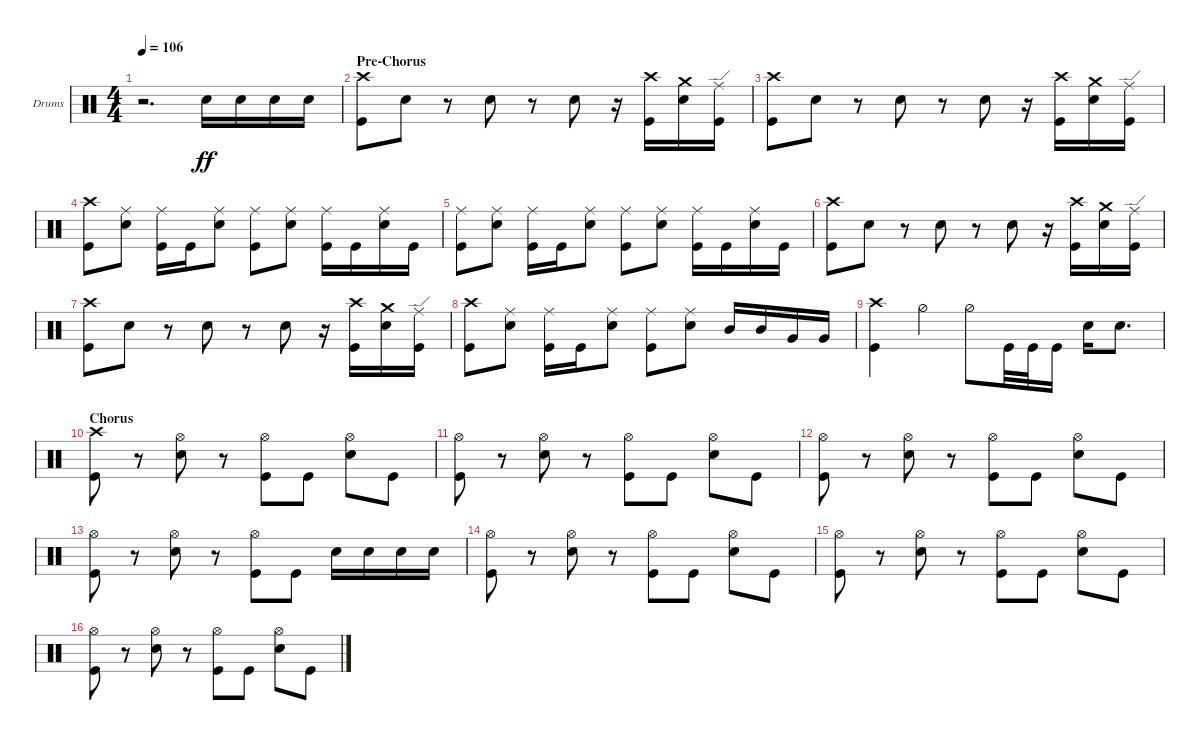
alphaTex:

\defaultSystemsLayout 4
\bracketExtendMode groupsimilarinstruments
\firstSystemTrackNameOrientation horizontal
\otherSystemsTrackNameOrientation horizontal
\track ("Drumkit" "Drums") {instrument percussion}
\staff {score}
\articulation defaults
\ts (4 4)
\tempo 106
\clef neutral
\ks c
r.2{d dy ff} "Snare (hit) 2".16 "Snare (hit) 2".16 "Snare (hit) 2".16 "Snare (hit) 2".16 |
\section ("" "Pre-Chorus")
\scale
0.474178 ("Kick (hit)" "Crash high (hit)").8 "Snare (hit) 2".8 r.8 "Snare (hit) 2".8 r.8 "Snare (hit) 2".8 r.16 ("Kick (hit)" "Crash high (hit)").16 ("Crash medium (hit)" "Snare (hit) 2").16 ("Kick (hit)" "Ride (edge)").16 |
\scale
0.262911 ("Kick (hit)" "Crash high (hit)").8 "Snare (hit) 2".8 r.8 "Snare (hit) 2".8 r.8 "Snare (hit) 2".8 r.16 ("Kick (hit)" "Crash high (hit)").16 ("Crash medium (hit)" "Snare (hit) 2").16 ("Kick (hit)" "Ride (edge)").16 |
\scale
0.262911 ("Kick (hit)" "Crash high (hit)").8 ("Snare (hit) 2" "Ride (middle)").8 ("Kick (hit)" "Ride (middle)").16 "Kick (hit)".16 ("Snare (hit) 2" "Ride (middle)").8 ("Kick (hit)" "Ride (middle)").8 ("Snare (hit) 2" "Ride (middle)").8 ("Kick (hit)" "Ride (middle)").16 "Kick (hit)".16 ("Snare (hit) 2" "Ride (middle)").16 "Kick (hit)".16 |
\scale
0.333333 ("Kick (hit)" "Ride (middle)").8 ("Snare (hit) 2" "Ride (middle)").8 ("Kick (hit)" "Ride (middle)").16 "Kick (hit)".16 ("Snare (hit) 2" "Ride (middle)").8 ("Kick (hit)" "Ride (middle)").8 ("Snare (hit) 2" "Ride (middle)").8 ("Kick (hit)" "Ride (middle)").16 "Kick (hit)".16 ("Snare (hit) 2" "Ride (middle)").16 "Kick (hit)".16 |
\scale
0.333333 ("Kick (hit)" "Crash high (hit)").8 "Snare (hit) 2".8 r.8 "Snare (hit) 2".8 r.8 "Snare (hit) 2".8 r.16 ("Kick (hit)" "Crash high (hit)").16 ("Crash medium (hit)" "Snare (hit) 2").16 ("Kick (hit)" "Ride (edge)").16 |
\scale
0.333333 ("Kick (hit)" "Crash high (hit)").8 "Snare (hit) 2".8 r.8 "Snare (hit) 2".8 r.8 "Snare (hit) 2".8 r.16 ("Kick (hit)" "Crash high (hit)").16 ("Crash medium (hit)" "Snare (hit) 2").16 ("Kick (hit)" "Ride (edge)").16 |
\scale
0.333333 ("Kick (hit)" "Crash high (hit)").8 ("Snare (hit) 2" "Ride (middle)").8 ("Kick (hit)" "Ride (middle)").16 "Kick (hit)".16 ("Snare (hit) 2" "Ride (middle)").8 ("Kick (hit)" "Ride (middle)").8 ("Snare (hit) 2" "Ride (middle)").8 "Mid Tom (hit)".16 "Mid Tom (hit)".16 "Very Low Tom (hit)".16 "Very Low Tom (hit)".16 |
\scale
0.333333 ("Kick (hit)" "Crash high (hit)").4 "Hi-Hat (half)".4 "Hi-Hat (half)".8 "Kick (hit)".32 "Kick (hit)".32 "Kick (hit)".16 "Snare (hit) 2".16 "Snare (hit) 2".8{d} |
\section ("" "Chorus")
\scale
0.333333 ("Crash high (hit)" "Kick (hit)").8 r.8 ("Snare (hit) 2" "Hi-Hat (open)").8 r.8 ("Kick (hit)" "Hi-Hat (open)").8 "Kick (hit)".8 ("Snare (hit) 2" "Hi-Hat (open)").8 "Kick (hit)".8 |
\scale
0.333333 ("Kick (hit)" "Hi-Hat (open)").8 r.8 ("Snare (hit) 2" "Hi-Hat (open)").8 r.8 ("Kick (hit)" "Hi-Hat (open)").8 "Kick (hit)".8 ("Snare (hit) 2" "Hi-Hat (open)").8 "Kick (hit)".8 |
\scale
0.333333 ("Kick (hit)" "Hi-Hat (open)").8 r.8 ("Snare (hit) 2" "Hi-Hat (open)").8 r.8 ("Kick (hit)" "Hi-Hat (open)").8 "Kick (hit)".8 ("Snare (hit) 2" "Hi-Hat (open)").8 "Kick (hit)".8 |
\scale
0.333333 ("Kick (hit)" "Hi-Hat (open)").8 r.8 ("Snare (hit) 2" "Hi-Hat (open)").8 r.8 ("Kick (hit)" "Hi-Hat (open)").8 "Kick (hit)".8 "Snare (hit) 2".16 "Snare (hit) 2".16 "Snare (hit) 2".16 "Snare (hit) 2".16 |
\scale
0.333333 ("Kick (hit)" "Hi-Hat (open)").8 r.8 ("Snare (hit) 2" "Hi-Hat (open)").8 r.8 ("Kick (hit)" "Hi-Hat (open)").8 "Kick (hit)".8 ("Snare (hit) 2" "Hi-Hat (open)").8 "Kick (hit)".8 |
\scale
0.333333 ("Kick (hit)" "Hi-Hat (open)").8 r.8 ("Snare (hit) 2" "Hi-Hat (open)").8 r.8 ("Kick (hit)" "Hi-Hat (open)").8 "Kick (hit)".8 ("Snare (hit) 2" "Hi-Hat (open)").8 "Kick (hit)".8 |
\scale
0.333333 ("Kick (hit)" "Hi-Hat (open)").8 r.8 ("Snare (hit) 2" "Hi-Hat (open)").8 r.8 ("Kick (hit)" "Hi-Hat (open)").8 "Kick (hit)".8 ("Snare (hit) 2" "Hi-Hat (open)").8 "Kick (hit)".8
